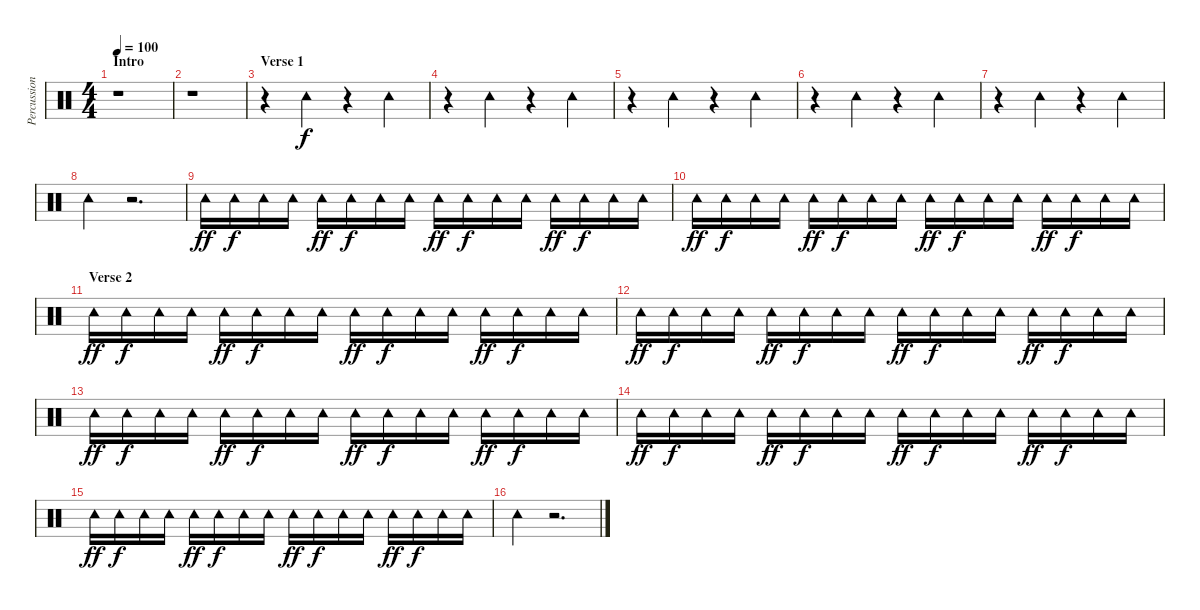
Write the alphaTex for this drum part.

\track ("Percussion" "Percussion") {instrument percussion}
\staff {score}
\articulation defaults
\ts (4 4)
\section ("" "Intro")
\tempo 100
\clef neutral
\ks c
r.1{dy f} |
r.1 |
\section ("" "Verse 1")
r.4 "Tambourine (hit)".4 r.4 "Tambourine (hit)".4 |
r.4 "Tambourine (hit)".4 r.4 "Tambourine (hit)".4 |
r.4 "Tambourine (hit)".4 r.4 "Tambourine (hit)".4 |
r.4 "Tambourine (hit)".4 r.4 "Tambourine (hit)".4 |
r.4 "Tambourine (hit)".4 r.4 "Tambourine (hit)".4 |
"Tambourine (hit)".4 r.2{d} |
"Tambourine (hit)".16{dy ff} "Tambourine (hit)".16{dy f} "Tambourine (hit)".16 "Tambourine (hit)".16 "Tambourine (hit)".16{dy ff} "Tambourine (hit)".16{dy f} "Tambourine (hit)".16 "Tambourine (hit)".16 "Tambourine (hit)".16{dy ff} "Tambourine (hit)".16{dy f} "Tambourine (hit)".16 "Tambourine (hit)".16 "Tambourine (hit)".16{dy ff} "Tambourine (hit)".16{dy f} "Tambourine (hit)".16 "Tambourine (hit)".16 |
"Tambourine (hit)".16{dy ff} "Tambourine (hit)".16{dy f} "Tambourine (hit)".16 "Tambourine (hit)".16 "Tambourine (hit)".16{dy ff} "Tambourine (hit)".16{dy f} "Tambourine (hit)".16 "Tambourine (hit)".16 "Tambourine (hit)".16{dy ff} "Tambourine (hit)".16{dy f} "Tambourine (hit)".16 "Tambourine (hit)".16 "Tambourine (hit)".16{dy ff} "Tambourine (hit)".16{dy f} "Tambourine (hit)".16 "Tambourine (hit)".16 |
\section ("" "Verse 2")
"Tambourine (hit)".16{dy ff} "Tambourine (hit)".16{dy f} "Tambourine (hit)".16 "Tambourine (hit)".16 "Tambourine (hit)".16{dy ff} "Tambourine (hit)".16{dy f} "Tambourine (hit)".16 "Tambourine (hit)".16 "Tambourine (hit)".16{dy ff} "Tambourine (hit)".16{dy f} "Tambourine (hit)".16 "Tambourine (hit)".16 "Tambourine (hit)".16{dy ff} "Tambourine (hit)".16{dy f} "Tambourine (hit)".16 "Tambourine (hit)".16 |
"Tambourine (hit)".16{dy ff} "Tambourine (hit)".16{dy f} "Tambourine (hit)".16 "Tambourine (hit)".16 "Tambourine (hit)".16{dy ff} "Tambourine (hit)".16{dy f} "Tambourine (hit)".16 "Tambourine (hit)".16 "Tambourine (hit)".16{dy ff} "Tambourine (hit)".16{dy f} "Tambourine (hit)".16 "Tambourine (hit)".16 "Tambourine (hit)".16{dy ff} "Tambourine (hit)".16{dy f} "Tambourine (hit)".16 "Tambourine (hit)".16 |
"Tambourine (hit)".16{dy ff} "Tambourine (hit)".16{dy f} "Tambourine (hit)".16 "Tambourine (hit)".16 "Tambourine (hit)".16{dy ff} "Tambourine (hit)".16{dy f} "Tambourine (hit)".16 "Tambourine (hit)".16 "Tambourine (hit)".16{dy ff} "Tambourine (hit)".16{dy f} "Tambourine (hit)".16 "Tambourine (hit)".16 "Tambourine (hit)".16{dy ff} "Tambourine (hit)".16{dy f} "Tambourine (hit)".16 "Tambourine (hit)".16 |
"Tambourine (hit)".16{dy ff} "Tambourine (hit)".16{dy f} "Tambourine (hit)".16 "Tambourine (hit)".16 "Tambourine (hit)".16{dy ff} "Tambourine (hit)".16{dy f} "Tambourine (hit)".16 "Tambourine (hit)".16 "Tambourine (hit)".16{dy ff} "Tambourine (hit)".16{dy f} "Tambourine (hit)".16 "Tambourine (hit)".16 "Tambourine (hit)".16{dy ff} "Tambourine (hit)".16{dy f} "Tambourine (hit)".16 "Tambourine (hit)".16 |
"Tambourine (hit)".16{dy ff} "Tambourine (hit)".16{dy f} "Tambourine (hit)".16 "Tambourine (hit)".16 "Tambourine (hit)".16{dy ff} "Tambourine (hit)".16{dy f} "Tambourine (hit)".16 "Tambourine (hit)".16 "Tambourine (hit)".16{dy ff} "Tambourine (hit)".16{dy f} "Tambourine (hit)".16 "Tambourine (hit)".16 "Tambourine (hit)".16{dy ff} "Tambourine (hit)".16{dy f} "Tambourine (hit)".16 "Tambourine (hit)".16 |
"Tambourine (hit)".4 r.2{d}
